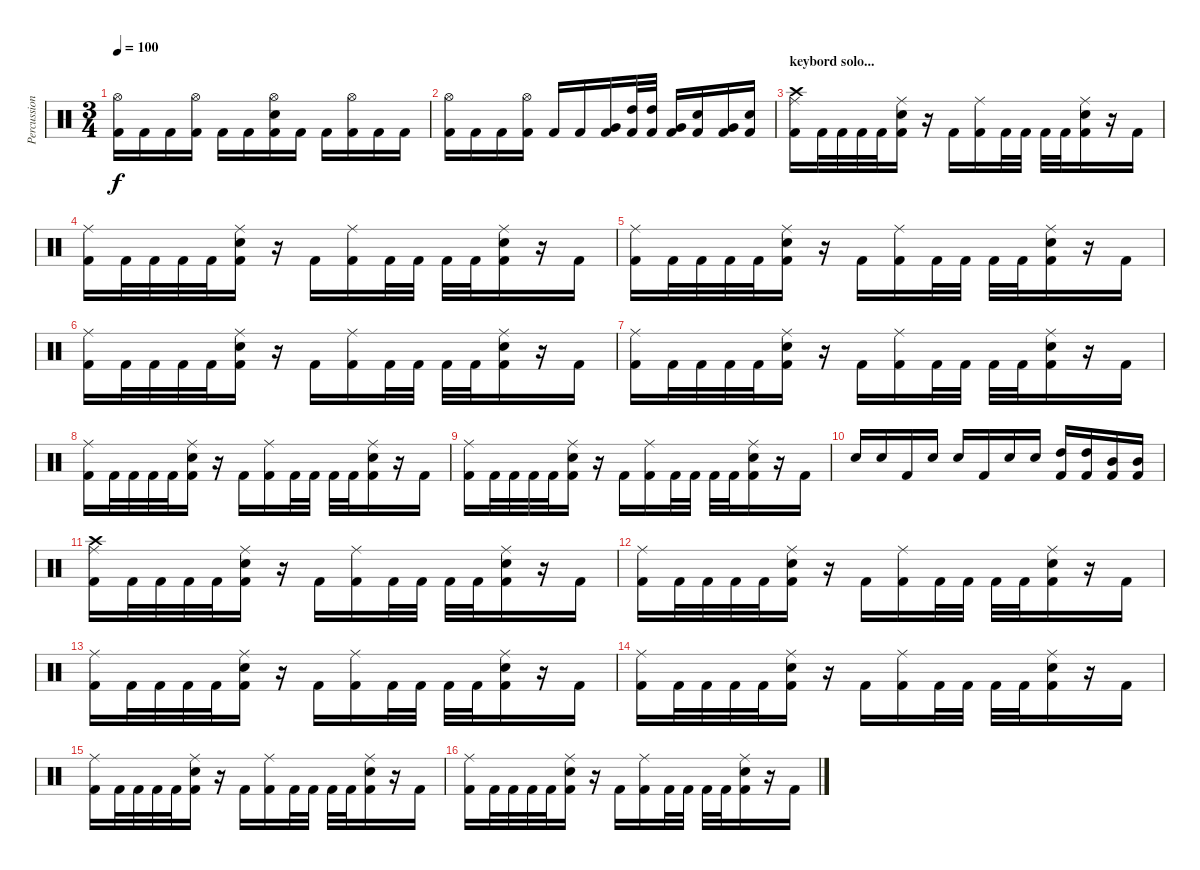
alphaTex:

\track ("Percussions" "Percussion") {instrument percussion}
\staff {score}
\articulation defaults
\ts (3 4)
\tempo 100
\clef neutral
\ks c
("Hi-Hat (open)" "Kick (hit) 2").16{dy f} "Kick (hit) 2".16 "Kick (hit) 2".16 ("Hi-Hat (open)" "Kick (hit) 2").16 "Kick (hit) 2".16 "Kick (hit) 2".16 ("Hi-Hat (open)" "Electric Snare (hit)" "Kick (hit) 2").16 "Kick (hit) 2".16 "Kick (hit) 2".16 ("Hi-Hat (open)" "Kick (hit) 2").16 "Kick (hit) 2".16 "Kick (hit) 2".16 |
("Hi-Hat (open)" "Kick (hit) 2").16 "Kick (hit) 2".16 "Kick (hit) 2".16 ("Hi-Hat (open)" "Kick (hit) 2").16 "Kick (hit) 2".16 "Kick (hit) 2".16 ("Very Low Tom (hit)" "Kick (hit) 2").16 ("High Tom (hit)" "Kick (hit) 2").32 ("High Tom (hit)" "Kick (hit) 2").32 ("Very Low Tom (hit)" "Kick (hit) 2").16 ("Electric Snare (hit)" "Kick (hit) 2").16 ("Very Low Tom (hit)" "Kick (hit) 2").16 ("Electric Snare (hit)" "Kick (hit) 2").16 |
\section ("" "keybord solo...")
("Crash high (hit)" "Ride (middle)" "Kick (hit) 2").16 "Kick (hit) 2".32 "Kick (hit) 2".32 "Kick (hit) 2".32 "Kick (hit) 2".32 ("Ride (middle)" "Electric Snare (hit)" "Kick (hit) 2").16 r.16 "Kick (hit) 2".16 ("Ride (middle)" "Kick (hit) 2").16 "Kick (hit) 2".32 "Kick (hit) 2".32 "Kick (hit) 2".32 "Kick (hit) 2".32 ("Ride (middle)" "Electric Snare (hit)" "Kick (hit) 2").16 r.16 "Kick (hit) 2".16 |
("Ride (middle)" "Kick (hit) 2").16 "Kick (hit) 2".32 "Kick (hit) 2".32 "Kick (hit) 2".32 "Kick (hit) 2".32 ("Ride (middle)" "Electric Snare (hit)" "Kick (hit) 2").16 r.16 "Kick (hit) 2".16 ("Ride (middle)" "Kick (hit) 2").16 "Kick (hit) 2".32 "Kick (hit) 2".32 "Kick (hit) 2".32 "Kick (hit) 2".32 ("Ride (middle)" "Electric Snare (hit)" "Kick (hit) 2").16 r.16 "Kick (hit) 2".16 |
("Ride (middle)" "Kick (hit) 2").16 "Kick (hit) 2".32 "Kick (hit) 2".32 "Kick (hit) 2".32 "Kick (hit) 2".32 ("Ride (middle)" "Electric Snare (hit)" "Kick (hit) 2").16 r.16 "Kick (hit) 2".16 ("Ride (middle)" "Kick (hit) 2").16 "Kick (hit) 2".32 "Kick (hit) 2".32 "Kick (hit) 2".32 "Kick (hit) 2".32 ("Ride (middle)" "Electric Snare (hit)" "Kick (hit) 2").16 r.16 "Kick (hit) 2".16 |
("Ride (middle)" "Kick (hit) 2").16 "Kick (hit) 2".32 "Kick (hit) 2".32 "Kick (hit) 2".32 "Kick (hit) 2".32 ("Ride (middle)" "Electric Snare (hit)" "Kick (hit) 2").16 r.16 "Kick (hit) 2".16 ("Ride (middle)" "Kick (hit) 2").16 "Kick (hit) 2".32 "Kick (hit) 2".32 "Kick (hit) 2".32 "Kick (hit) 2".32 ("Ride (middle)" "Electric Snare (hit)" "Kick (hit) 2").16 r.16 "Kick (hit) 2".16 |
("Ride (middle)" "Kick (hit) 2").16 "Kick (hit) 2".32 "Kick (hit) 2".32 "Kick (hit) 2".32 "Kick (hit) 2".32 ("Ride (middle)" "Electric Snare (hit)" "Kick (hit) 2").16 r.16 "Kick (hit) 2".16 ("Ride (middle)" "Kick (hit) 2").16 "Kick (hit) 2".32 "Kick (hit) 2".32 "Kick (hit) 2".32 "Kick (hit) 2".32 ("Ride (middle)" "Electric Snare (hit)" "Kick (hit) 2").16 r.16 "Kick (hit) 2".16 |
("Ride (middle)" "Kick (hit) 2").16 "Kick (hit) 2".32 "Kick (hit) 2".32 "Kick (hit) 2".32 "Kick (hit) 2".32 ("Ride (middle)" "Electric Snare (hit)" "Kick (hit) 2").16 r.16 "Kick (hit) 2".16 ("Ride (middle)" "Kick (hit) 2").16 "Kick (hit) 2".32 "Kick (hit) 2".32 "Kick (hit) 2".32 "Kick (hit) 2".32 ("Ride (middle)" "Electric Snare (hit)" "Kick (hit) 2").16 r.16 "Kick (hit) 2".16 |
("Ride (middle)" "Kick (hit) 2").16 "Kick (hit) 2".32 "Kick (hit) 2".32 "Kick (hit) 2".32 "Kick (hit) 2".32 ("Ride (middle)" "Electric Snare (hit)" "Kick (hit) 2").16 r.16 "Kick (hit) 2".16 ("Ride (middle)" "Kick (hit) 2").16 "Kick (hit) 2".32 "Kick (hit) 2".32 "Kick (hit) 2".32 "Kick (hit) 2".32 ("Ride (middle)" "Electric Snare (hit)" "Kick (hit) 2").16 r.16 "Kick (hit) 2".16 |
"Electric Snare (hit)".16 "Electric Snare (hit)".16 "Kick (hit) 2".16 "Electric Snare (hit)".16 "Electric Snare (hit)".16 "Kick (hit) 2".16 "Electric Snare (hit)".16 "Electric Snare (hit)".16 ("High Tom (hit)" "Kick (hit) 2").16 ("High Tom (hit)" "Kick (hit) 2").16 ("Mid Tom (hit)" "Kick (hit) 2").16 ("Mid Tom (hit)" "Kick (hit) 2").16 |
("Crash high (hit)" "Ride (middle)" "Kick (hit) 2").16 "Kick (hit) 2".32 "Kick (hit) 2".32 "Kick (hit) 2".32 "Kick (hit) 2".32 ("Ride (middle)" "Electric Snare (hit)" "Kick (hit) 2").16 r.16 "Kick (hit) 2".16 ("Ride (middle)" "Kick (hit) 2").16 "Kick (hit) 2".32 "Kick (hit) 2".32 "Kick (hit) 2".32 "Kick (hit) 2".32 ("Ride (middle)" "Electric Snare (hit)" "Kick (hit) 2").16 r.16 "Kick (hit) 2".16 |
("Ride (middle)" "Kick (hit) 2").16 "Kick (hit) 2".32 "Kick (hit) 2".32 "Kick (hit) 2".32 "Kick (hit) 2".32 ("Ride (middle)" "Electric Snare (hit)" "Kick (hit) 2").16 r.16 "Kick (hit) 2".16 ("Ride (middle)" "Kick (hit) 2").16 "Kick (hit) 2".32 "Kick (hit) 2".32 "Kick (hit) 2".32 "Kick (hit) 2".32 ("Ride (middle)" "Electric Snare (hit)" "Kick (hit) 2").16 r.16 "Kick (hit) 2".16 |
("Ride (middle)" "Kick (hit) 2").16 "Kick (hit) 2".32 "Kick (hit) 2".32 "Kick (hit) 2".32 "Kick (hit) 2".32 ("Ride (middle)" "Electric Snare (hit)" "Kick (hit) 2").16 r.16 "Kick (hit) 2".16 ("Ride (middle)" "Kick (hit) 2").16 "Kick (hit) 2".32 "Kick (hit) 2".32 "Kick (hit) 2".32 "Kick (hit) 2".32 ("Ride (middle)" "Electric Snare (hit)" "Kick (hit) 2").16 r.16 "Kick (hit) 2".16 |
("Ride (middle)" "Kick (hit) 2").16 "Kick (hit) 2".32 "Kick (hit) 2".32 "Kick (hit) 2".32 "Kick (hit) 2".32 ("Ride (middle)" "Electric Snare (hit)" "Kick (hit) 2").16 r.16 "Kick (hit) 2".16 ("Ride (middle)" "Kick (hit) 2").16 "Kick (hit) 2".32 "Kick (hit) 2".32 "Kick (hit) 2".32 "Kick (hit) 2".32 ("Ride (middle)" "Electric Snare (hit)" "Kick (hit) 2").16 r.16 "Kick (hit) 2".16 |
("Ride (middle)" "Kick (hit) 2").16 "Kick (hit) 2".32 "Kick (hit) 2".32 "Kick (hit) 2".32 "Kick (hit) 2".32 ("Ride (middle)" "Electric Snare (hit)" "Kick (hit) 2").16 r.16 "Kick (hit) 2".16 ("Ride (middle)" "Kick (hit) 2").16 "Kick (hit) 2".32 "Kick (hit) 2".32 "Kick (hit) 2".32 "Kick (hit) 2".32 ("Ride (middle)" "Electric Snare (hit)" "Kick (hit) 2").16 r.16 "Kick (hit) 2".16 |
("Ride (middle)" "Kick (hit) 2").16 "Kick (hit) 2".32 "Kick (hit) 2".32 "Kick (hit) 2".32 "Kick (hit) 2".32 ("Ride (middle)" "Electric Snare (hit)" "Kick (hit) 2").16 r.16 "Kick (hit) 2".16 ("Ride (middle)" "Kick (hit) 2").16 "Kick (hit) 2".32 "Kick (hit) 2".32 "Kick (hit) 2".32 "Kick (hit) 2".32 ("Ride (middle)" "Electric Snare (hit)" "Kick (hit) 2").16 r.16 "Kick (hit) 2".16
